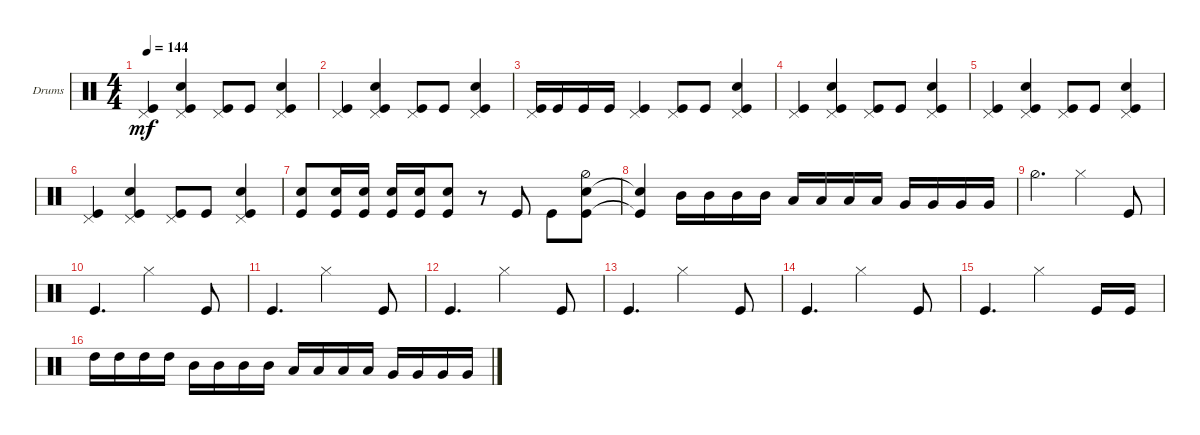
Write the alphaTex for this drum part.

\bracketExtendMode groupsimilarinstruments
\firstSystemTrackNameOrientation horizontal
\otherSystemsTrackNameOrientation horizontal
\track ("Drums" "Drums") {instrument percussion}
\staff {score}
\articulation defaults
\ts (4 4)
\tempo 144
\clef neutral
\ks c
("Kick (hit)" "Pedal Hi-Hat (hit)").4{dy mf} ("Kick (hit)" "Snare (hit) 2" "Pedal Hi-Hat (hit)").4 ("Kick (hit)" "Pedal Hi-Hat (hit)").8 "Kick (hit)".8 ("Kick (hit)" "Snare (hit) 2" "Pedal Hi-Hat (hit)").4 |
("Kick (hit)" "Pedal Hi-Hat (hit)").4 ("Kick (hit)" "Snare (hit) 2" "Pedal Hi-Hat (hit)").4 ("Kick (hit)" "Pedal Hi-Hat (hit)").8 "Kick (hit)".8 ("Kick (hit)" "Snare (hit) 2" "Pedal Hi-Hat (hit)").4 |
("Kick (hit)" "Pedal Hi-Hat (hit)").16 "Kick (hit)".16 "Kick (hit)".16 "Kick (hit)".16 ("Kick (hit)" "Pedal Hi-Hat (hit)").4 ("Kick (hit)" "Pedal Hi-Hat (hit)").8 "Kick (hit)".8 ("Kick (hit)" "Snare (hit) 2" "Pedal Hi-Hat (hit)").4 |
("Kick (hit)" "Pedal Hi-Hat (hit)").4 ("Kick (hit)" "Snare (hit) 2" "Pedal Hi-Hat (hit)").4 ("Kick (hit)" "Pedal Hi-Hat (hit)").8 "Kick (hit)".8 ("Kick (hit)" "Snare (hit) 2" "Pedal Hi-Hat (hit)").4 |
("Kick (hit)" "Pedal Hi-Hat (hit)").4 ("Kick (hit)" "Snare (hit) 2" "Pedal Hi-Hat (hit)").4 ("Kick (hit)" "Pedal Hi-Hat (hit)").8 "Kick (hit)".8 ("Kick (hit)" "Snare (hit) 2" "Pedal Hi-Hat (hit)").4 |
("Kick (hit)" "Pedal Hi-Hat (hit)").4 ("Kick (hit)" "Snare (hit) 2" "Pedal Hi-Hat (hit)").4 ("Kick (hit)" "Pedal Hi-Hat (hit)").8 "Kick (hit)".8 ("Kick (hit)" "Snare (hit) 2" "Pedal Hi-Hat (hit)").4 |
("Kick (hit)" "Snare (hit) 2").8 ("Kick (hit)" "Snare (hit) 2").16 ("Kick (hit)" "Snare (hit) 2").16 ("Kick (hit)" "Snare (hit) 2").16 ("Kick (hit)" "Snare (hit) 2").16 ("Kick (hit)" "Snare (hit) 2").8 r.8 "Kick (hit)".8 "Kick (hit)".8 ("Kick (hit)" "Snare (hit) 2" "Hi-Hat (half)").8 |
("Kick (hit)"{t} "Snare (hit) 2"{t}).4 "Mid Tom (hit)".16 "Mid Tom (hit)".16 "Mid Tom (hit)".16 "Mid Tom (hit)".16 "Low Tom (hit)".16 "Low Tom (hit)".16 "Low Tom (hit)".16 "Low Tom (hit)".16 "Very Low Tom (hit)".16 "Very Low Tom (hit)".16 "Very Low Tom (hit)".16 "Very Low Tom (hit)".16 |
"Hi-Hat (half)".4{d} "Hi-Hat (closed)".2 "Kick (hit)".8 |
"Kick (hit)".4{d} "Hi-Hat (closed)".2 "Kick (hit)".8 |
"Kick (hit)".4{d} "Hi-Hat (closed)".2 "Kick (hit)".8 |
"Kick (hit)".4{d} "Hi-Hat (closed)".2 "Kick (hit)".8 |
"Kick (hit)".4{d} "Hi-Hat (closed)".2 "Kick (hit)".8 |
"Kick (hit)".4{d} "Hi-Hat (closed)".2 "Kick (hit)".8 |
"Kick (hit)".4{d} "Hi-Hat (closed)".2 "Kick (hit)".16 "Kick (hit)".16 |
"High Tom (hit)".16 "High Tom (hit)".16 "High Tom (hit)".16 "High Tom (hit)".16 "Mid Tom (hit)".16 "Mid Tom (hit)".16 "Mid Tom (hit)".16 "Mid Tom (hit)".16 "Low Tom (hit)".16 "Low Tom (hit)".16 "Low Tom (hit)".16 "Low Tom (hit)".16 "Very Low Tom (hit)".16 "Very Low Tom (hit)".16 "Very Low Tom (hit)".16 "Very Low Tom (hit)".16
